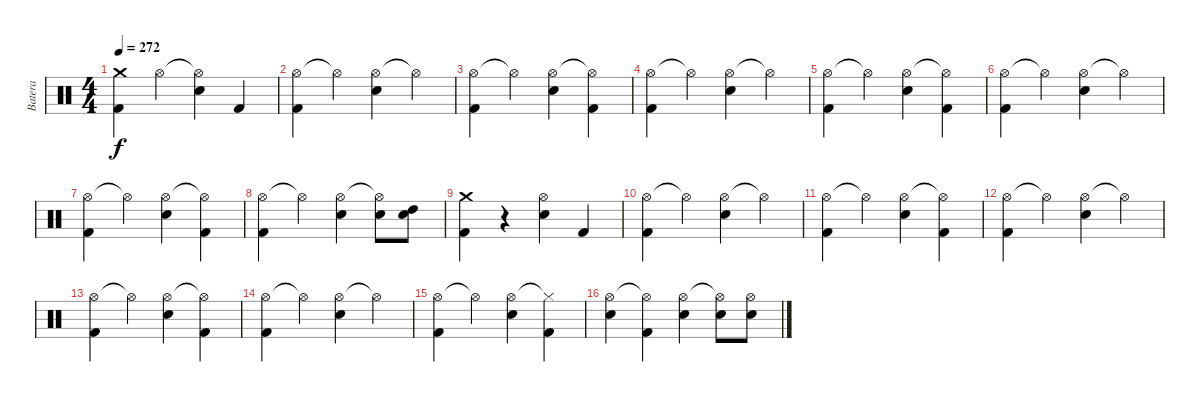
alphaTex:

\track ("Batera" "Batera") {instrument percussion}
\staff {score}
\articulation defaults
\ts (4 4)
\tempo 272
\clef neutral
\ks c
("Crash medium (hit)" "Kick (hit) 2").4{dy f} "Hi-Hat (open)".4 ("Hi-Hat (open)"{t} "Electric Snare (hit)").4 "Kick (hit) 2".4 |
("Hi-Hat (open)" "Kick (hit) 2").4 "Hi-Hat (open)"{t}.4 ("Hi-Hat (open)" "Electric Snare (hit)").4 "Hi-Hat (open)"{t}.4 |
("Hi-Hat (open)" "Kick (hit) 2").4 "Hi-Hat (open)"{t}.4 ("Hi-Hat (open)" "Electric Snare (hit)").4 ("Hi-Hat (open)"{t} "Kick (hit) 2").4 |
("Hi-Hat (open)" "Kick (hit) 2").4 "Hi-Hat (open)"{t}.4 ("Hi-Hat (open)" "Electric Snare (hit)").4 "Hi-Hat (open)"{t}.4 |
("Hi-Hat (open)" "Kick (hit) 2").4 "Hi-Hat (open)"{t}.4 ("Hi-Hat (open)" "Electric Snare (hit)").4 ("Hi-Hat (open)"{t} "Kick (hit) 2").4 |
("Hi-Hat (open)" "Kick (hit) 2").4 "Hi-Hat (open)"{t}.4 ("Hi-Hat (open)" "Electric Snare (hit)").4 "Hi-Hat (open)"{t}.4 |
("Hi-Hat (open)" "Kick (hit) 2").4 "Hi-Hat (open)"{t}.4 ("Hi-Hat (open)" "Electric Snare (hit)").4 ("Hi-Hat (open)"{t} "Kick (hit) 2").4 |
("Hi-Hat (open)" "Kick (hit) 2").4 "Hi-Hat (open)"{t}.4 ("Hi-Hat (open)" "Electric Snare (hit)").4 ("Hi-Hat (open)"{t} "Electric Snare (hit)").8 ("High Tom (hit)" "Electric Snare (hit)").8 |
("Crash medium (hit)" "Kick (hit) 2").4 r.4 ("Hi-Hat (open)" "Electric Snare (hit)").4 "Kick (hit) 2".4 |
("Hi-Hat (open)" "Kick (hit) 2").4 "Hi-Hat (open)"{t}.4 ("Hi-Hat (open)" "Electric Snare (hit)").4 "Hi-Hat (open)"{t}.4 |
("Hi-Hat (open)" "Kick (hit) 2").4 "Hi-Hat (open)"{t}.4 ("Hi-Hat (open)" "Electric Snare (hit)").4 ("Hi-Hat (open)"{t} "Kick (hit) 2").4 |
("Hi-Hat (open)" "Kick (hit) 2").4 "Hi-Hat (open)"{t}.4 ("Hi-Hat (open)" "Electric Snare (hit)").4 "Hi-Hat (open)"{t}.4 |
("Hi-Hat (open)" "Kick (hit) 2").4 "Hi-Hat (open)"{t}.4 ("Hi-Hat (open)" "Electric Snare (hit)").4 ("Hi-Hat (open)"{t} "Kick (hit) 2").4 |
("Hi-Hat (open)" "Kick (hit) 2").4 "Hi-Hat (open)"{t}.4 ("Hi-Hat (open)" "Electric Snare (hit)").4 "Hi-Hat (open)"{t}.4 |
("Hi-Hat (open)" "Kick (hit) 2").4 "Hi-Hat (open)"{t}.4 ("Hi-Hat (open)" "Electric Snare (hit)").4 ("Hi-Hat (closed)"{t} "Kick (hit) 2").4 |
("Hi-Hat (open)" "Electric Snare (hit)").4 ("Hi-Hat (open)"{t} "Kick (hit) 2").4 ("Hi-Hat (open)" "Electric Snare (hit)").4 ("Hi-Hat (open)"{t} "Electric Snare (hit)").8 ("Hi-Hat (open)" "Electric Snare (hit)").8
